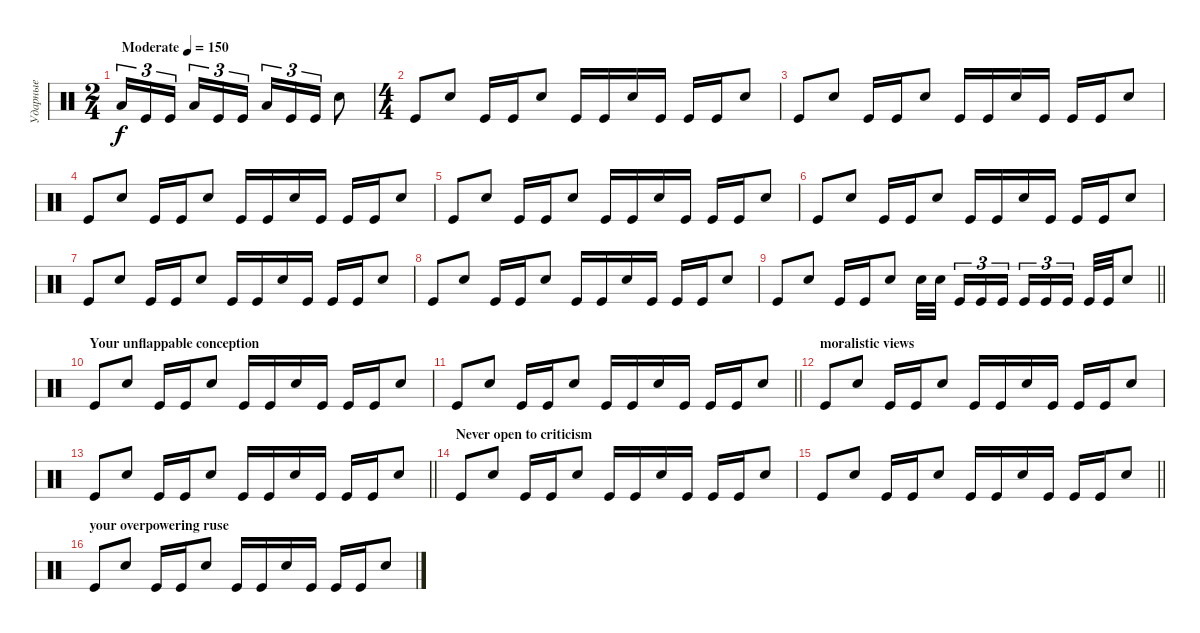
\track ("Ударные" "Ударные") {instrument percussion}
\staff {score}
\articulation defaults
\ts (2 4)
\tempo (150 "Moderate")
\clef neutral
\ks c "Low Floor Tom (hit)".16{tu (3 2) dy f} "Kick (hit)".16{tu (3 2)} "Kick (hit)".16{tu (3 2) beam splitsecondary} "Low Floor Tom (hit)".16{tu (3 2)} "Kick (hit)".16{tu (3 2)} "Kick (hit)".16{tu (3 2)} "Low Floor Tom (hit)".16{tu (3 2)} "Kick (hit)".16{tu (3 2)} "Kick (hit)".16{tu (3 2)} "Snare (hit) 2".8
|
\ts (4 4)
"Kick (hit)".8 "Snare (hit) 2".8 "Kick (hit)".16 "Kick (hit)".16 "Snare (hit) 2".8 "Kick (hit)".16 "Kick (hit)".16 "Snare (hit) 2".16 "Kick (hit)".16 "Kick (hit)".16 "Kick (hit)".16 "Snare (hit) 2".8 |
"Kick (hit)".8 "Snare (hit) 2".8 "Kick (hit)".16 "Kick (hit)".16 "Snare (hit) 2".8 "Kick (hit)".16 "Kick (hit)".16 "Snare (hit) 2".16 "Kick (hit)".16 "Kick (hit)".16 "Kick (hit)".16 "Snare (hit) 2".8 |
"Kick (hit)".8 "Snare (hit) 2".8 "Kick (hit)".16 "Kick (hit)".16 "Snare (hit) 2".8 "Kick (hit)".16 "Kick (hit)".16 "Snare (hit) 2".16 "Kick (hit)".16 "Kick (hit)".16 "Kick (hit)".16 "Snare (hit) 2".8 |
"Kick (hit)".8 "Snare (hit) 2".8 "Kick (hit)".16 "Kick (hit)".16 "Snare (hit) 2".8 "Kick (hit)".16 "Kick (hit)".16 "Snare (hit) 2".16 "Kick (hit)".16 "Kick (hit)".16 "Kick (hit)".16 "Snare (hit) 2".8 |
"Kick (hit)".8 "Snare (hit) 2".8 "Kick (hit)".16 "Kick (hit)".16 "Snare (hit) 2".8 "Kick (hit)".16 "Kick (hit)".16 "Snare (hit) 2".16 "Kick (hit)".16 "Kick (hit)".16 "Kick (hit)".16 "Snare (hit) 2".8 |
"Kick (hit)".8 "Snare (hit) 2".8 "Kick (hit)".16 "Kick (hit)".16 "Snare (hit) 2".8 "Kick (hit)".16 "Kick (hit)".16 "Snare (hit) 2".16 "Kick (hit)".16 "Kick (hit)".16 "Kick (hit)".16 "Snare (hit) 2".8 |
"Kick (hit)".8 "Snare (hit) 2".8 "Kick (hit)".16 "Kick (hit)".16 "Snare (hit) 2".8 "Kick (hit)".16 "Kick (hit)".16 "Snare (hit) 2".16 "Kick (hit)".16 "Kick (hit)".16 "Kick (hit)".16 "Snare (hit) 2".8 |
\barLineRight lightlight "Kick (hit)".8 "Snare (hit) 2".8 "Kick (hit)".16 "Kick (hit)".16 "Snare (hit) 2".8 "Snare (hit) 2".32 "Snare (hit) 2".32{beam splitsecondary} "Kick (hit)".16{tu (3 2)} "Kick (hit)".16{tu (3 2)} "Kick (hit)".16{tu (3 2) beam splitsecondary} "Kick (hit)".16{tu (3 2)} "Kick (hit)".16{tu (3 2)} "Kick (hit)".16{tu (3 2) beam splitsecondary} "Kick (hit)".32 "Kick (hit)".32 "Snare (hit) 2".8
|
\section ("" "Your unflappable conception")
"Kick (hit)".8 "Snare (hit) 2".8 "Kick (hit)".16 "Kick (hit)".16 "Snare (hit) 2".8 "Kick (hit)".16 "Kick (hit)".16 "Snare (hit) 2".16 "Kick (hit)".16 "Kick (hit)".16 "Kick (hit)".16 "Snare (hit) 2".8 |
\barLineRight lightlight "Kick (hit)".8 "Snare (hit) 2".8 "Kick (hit)".16 "Kick (hit)".16 "Snare (hit) 2".8 "Kick (hit)".16 "Kick (hit)".16 "Snare (hit) 2".16 "Kick (hit)".16 "Kick (hit)".16 "Kick (hit)".16 "Snare (hit) 2".8
|
\section ("" "moralistic views")
"Kick (hit)".8 "Snare (hit) 2".8 "Kick (hit)".16 "Kick (hit)".16 "Snare (hit) 2".8 "Kick (hit)".16 "Kick (hit)".16 "Snare (hit) 2".16 "Kick (hit)".16 "Kick (hit)".16 "Kick (hit)".16 "Snare (hit) 2".8 |
\barLineRight lightlight "Kick (hit)".8 "Snare (hit) 2".8 "Kick (hit)".16 "Kick (hit)".16 "Snare (hit) 2".8 "Kick (hit)".16 "Kick (hit)".16 "Snare (hit) 2".16 "Kick (hit)".16 "Kick (hit)".16 "Kick (hit)".16 "Snare (hit) 2".8
|
\section ("" "Never open to criticism")
"Kick (hit)".8 "Snare (hit) 2".8 "Kick (hit)".16 "Kick (hit)".16 "Snare (hit) 2".8 "Kick (hit)".16 "Kick (hit)".16 "Snare (hit) 2".16 "Kick (hit)".16 "Kick (hit)".16 "Kick (hit)".16 "Snare (hit) 2".8 |
\barLineRight lightlight "Kick (hit)".8 "Snare (hit) 2".8 "Kick (hit)".16 "Kick (hit)".16 "Snare (hit) 2".8 "Kick (hit)".16 "Kick (hit)".16 "Snare (hit) 2".16 "Kick (hit)".16 "Kick (hit)".16 "Kick (hit)".16 "Snare (hit) 2".8
|
\section ("" "your overpowering ruse")
"Kick (hit)".8 "Snare (hit) 2".8 "Kick (hit)".16 "Kick (hit)".16 "Snare (hit) 2".8 "Kick (hit)".16 "Kick (hit)".16 "Snare (hit) 2".16 "Kick (hit)".16 "Kick (hit)".16 "Kick (hit)".16 "Snare (hit) 2".8
